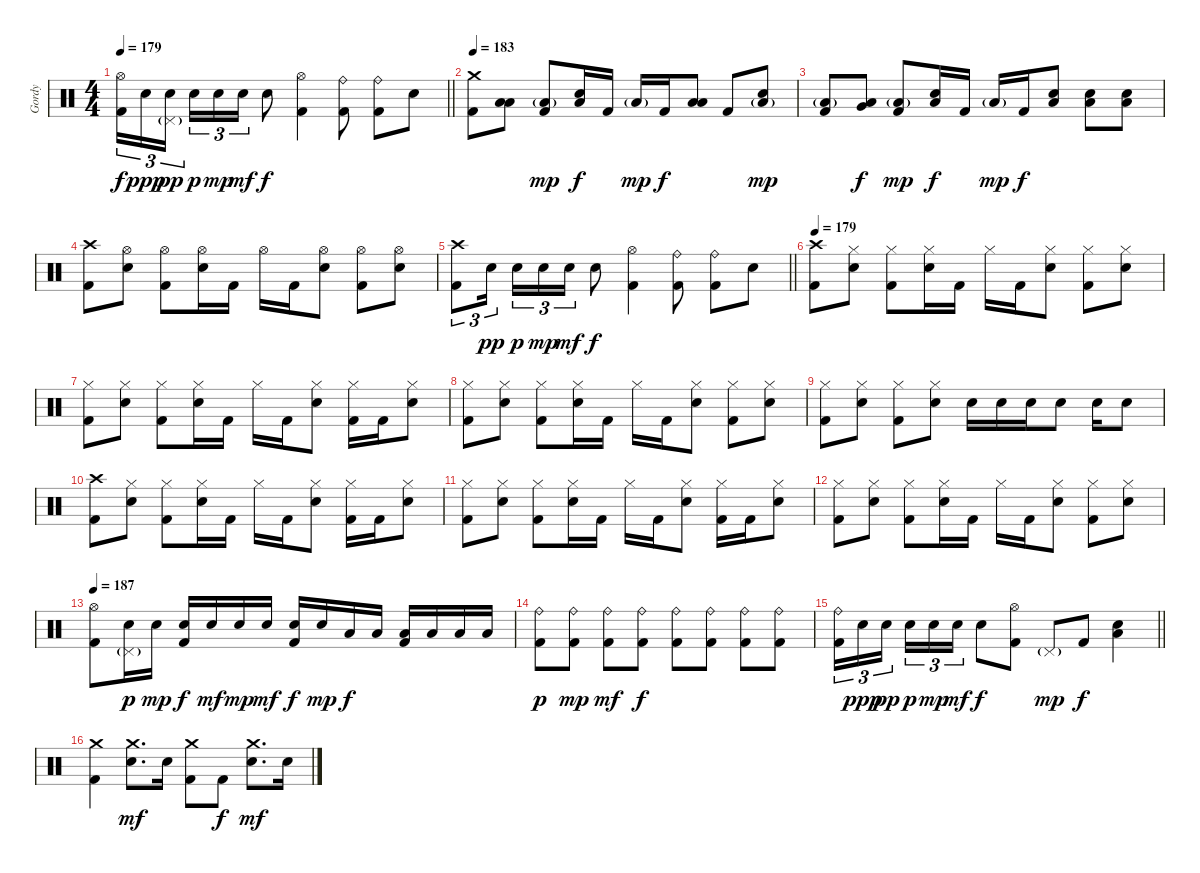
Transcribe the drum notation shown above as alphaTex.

\track ("Gordy" "Gordy") {instrument percussion}
\staff {score}
\articulation defaults
\ts (4 4)
\tempo 179
\clef neutral
\barLineRight lightlight
\ks c
("Hi-Hat (open)" "Kick (hit) 2").16{tu (3 2) dy f} "Electric Snare (hit)".16{tu (3 2) dy ppp} ("Pedal Hi-Hat (hit)"{g} "Electric Snare (hit)").16{tu (3 2) dy pp beam splitsecondary} "Electric Snare (hit)".16{tu (3 2) dy p} "Electric Snare (hit)".16{tu (3 2) dy mp} "Electric Snare (hit)".16{tu (3 2) dy mf} "Electric Snare (hit)".8{dy f} ("Hi-Hat (open)" "Kick (hit) 2").4 ("Ride (bell)" "Kick (hit) 2").8 ("Ride (bell)" "Kick (hit) 2").8 "Electric Snare (hit)".8 |
\section ("" "")
\tempo 183
("Crash medium (hit)" "Kick (hit) 2").8 ("Low Tom (hit)" "Low Floor Tom (hit)").8 ("Low Floor Tom (hit)"{g} "Kick (hit) 2").8{dy mp} ("Electric Snare (hit)" "Low Floor Tom (hit)").16{dy f} "Kick (hit) 2".16 "Low Floor Tom (hit)"{g}.16{dy mp} "Kick (hit) 2".16{dy f} ("Low Tom (hit)" "Low Floor Tom (hit)").8 "Kick (hit) 2".8 ("Electric Snare (hit)" "Low Floor Tom (hit)"{g}).8{dy mp} |
("Low Floor Tom (hit)"{g} "Kick (hit) 2").8 ("Very Low Tom (hit)" "Low Floor Tom (hit)").8{dy f} ("Low Floor Tom (hit)"{g} "Kick (hit) 2").8{dy mp} ("Electric Snare (hit)" "Low Floor Tom (hit)").16{dy f} "Kick (hit) 2".16 "Low Floor Tom (hit)"{g}.16{dy mp} "Kick (hit) 2".16{dy f} ("Electric Snare (hit)" "Low Floor Tom (hit)").8 ("Electric Snare (hit)" "Low Floor Tom (hit)").8 ("Electric Snare (hit)" "Low Floor Tom (hit)").8 |
("Crash high (hit)" "Kick (hit) 2").8 ("Hi-Hat (open)" "Electric Snare (hit)").8 ("Hi-Hat (open)" "Kick (hit) 2").8 ("Hi-Hat (open)" "Electric Snare (hit)").16 "Kick (hit) 2".16 "Hi-Hat (open)".16 "Kick (hit) 2".16 ("Hi-Hat (open)" "Electric Snare (hit)").8 ("Hi-Hat (open)" "Kick (hit) 2").8 ("Hi-Hat (open)" "Electric Snare (hit)").8 |
\barLineRight lightlight
("Crash high (hit)" "Kick (hit) 2").8{tu (3 2)} "Electric Snare (hit)".16{tu (3 2) dy pp beam splitsecondary} "Electric Snare (hit)".16{tu (3 2) dy p} "Electric Snare (hit)".16{tu (3 2) dy mp} "Electric Snare (hit)".16{tu (3 2) dy mf} "Electric Snare (hit)".8{dy f} ("Hi-Hat (open)" "Kick (hit) 2").4 ("Ride (bell)" "Kick (hit) 2").8 ("Ride (bell)" "Kick (hit) 2").8 "Electric Snare (hit)".8 |
\section ("" "")
\tempo 179
("Crash high (hit)" "Kick (hit) 2").8 ("Hi-Hat (closed)" "Electric Snare (hit)").8 ("Hi-Hat (closed)" "Kick (hit) 2").8 ("Hi-Hat (closed)" "Electric Snare (hit)").16 "Kick (hit) 2".16 "Hi-Hat (closed)".16 "Kick (hit) 2".16 ("Hi-Hat (closed)" "Electric Snare (hit)").8 ("Hi-Hat (closed)" "Kick (hit) 2").8 ("Hi-Hat (closed)" "Electric Snare (hit)").8 |
("Hi-Hat (closed)" "Kick (hit) 2").8 ("Hi-Hat (closed)" "Electric Snare (hit)").8 ("Hi-Hat (closed)" "Kick (hit) 2").8 ("Hi-Hat (closed)" "Electric Snare (hit)").16 "Kick (hit) 2".16 "Hi-Hat (closed)".16 "Kick (hit) 2".16 ("Hi-Hat (closed)" "Electric Snare (hit)").8 ("Hi-Hat (closed)" "Kick (hit) 2").16 "Kick (hit) 2".16 ("Hi-Hat (closed)" "Electric Snare (hit)").8 |
("Hi-Hat (closed)" "Kick (hit) 2").8 ("Hi-Hat (closed)" "Electric Snare (hit)").8 ("Hi-Hat (closed)" "Kick (hit) 2").8 ("Hi-Hat (closed)" "Electric Snare (hit)").16 "Kick (hit) 2".16 "Hi-Hat (closed)".16 "Kick (hit) 2".16 ("Hi-Hat (closed)" "Electric Snare (hit)").8 ("Hi-Hat (closed)" "Kick (hit) 2").8 ("Hi-Hat (closed)" "Electric Snare (hit)").8 |
("Hi-Hat (closed)" "Kick (hit) 2").8 ("Hi-Hat (closed)" "Electric Snare (hit)").8 ("Hi-Hat (closed)" "Kick (hit) 2").8 ("Hi-Hat (closed)" "Electric Snare (hit)").8 "Electric Snare (hit)".16 "Electric Snare (hit)".16 "Electric Snare (hit)".16 "Electric Snare (hit)".8 "Electric Snare (hit)".16 "Electric Snare (hit)".8 |
("Crash high (hit)" "Kick (hit) 2").8 ("Hi-Hat (closed)" "Electric Snare (hit)").8 ("Hi-Hat (closed)" "Kick (hit) 2").8 ("Hi-Hat (closed)" "Electric Snare (hit)").16 "Kick (hit) 2".16 "Hi-Hat (closed)".16 "Kick (hit) 2".16 ("Hi-Hat (closed)" "Electric Snare (hit)").8 ("Hi-Hat (closed)" "Kick (hit) 2").16 "Kick (hit) 2".16 ("Hi-Hat (closed)" "Electric Snare (hit)").8 |
("Hi-Hat (closed)" "Kick (hit) 2").8 ("Hi-Hat (closed)" "Electric Snare (hit)").8 ("Hi-Hat (closed)" "Kick (hit) 2").8 ("Hi-Hat (closed)" "Electric Snare (hit)").16 "Kick (hit) 2".16 "Hi-Hat (closed)".16 "Kick (hit) 2".16 ("Hi-Hat (closed)" "Electric Snare (hit)").8 ("Hi-Hat (closed)" "Kick (hit) 2").16 "Kick (hit) 2".16 ("Hi-Hat (closed)" "Electric Snare (hit)").8 |
("Hi-Hat (closed)" "Kick (hit) 2").8 ("Hi-Hat (closed)" "Electric Snare (hit)").8 ("Hi-Hat (closed)" "Kick (hit) 2").8 ("Hi-Hat (closed)" "Electric Snare (hit)").16 "Kick (hit) 2".16 "Hi-Hat (closed)".16 "Kick (hit) 2".16 ("Hi-Hat (closed)" "Electric Snare (hit)").8 ("Hi-Hat (closed)" "Kick (hit) 2").8 ("Hi-Hat (closed)" "Electric Snare (hit)").8 |
\tempo 187
("Hi-Hat (open)" "Kick (hit) 2").8 ("Pedal Hi-Hat (hit)"{g} "Electric Snare (hit)").16{dy p} "Electric Snare (hit)".16{dy mp} ("Electric Snare (hit)" "Kick (hit) 2").16{dy f} "Electric Snare (hit)".16{dy mf} "Electric Snare (hit)".16{dy mp} "Electric Snare (hit)".16{dy mf} ("Electric Snare (hit)" "Kick (hit) 2").16{dy f} "Electric Snare (hit)".16{dy mp} "Low Tom (hit)".16{dy f} "Low Tom (hit)".16 ("Low Tom (hit)" "Kick (hit) 2").16 "Low Tom (hit)".16 "Low Floor Tom (hit)".16 "Low Floor Tom (hit)".16 |
("Ride (bell)" "Kick (hit) 2").8{dy p} ("Ride (bell)" "Kick (hit) 2").8{dy mp} ("Ride (bell)" "Kick (hit) 2").8{dy mf} ("Ride (bell)" "Kick (hit) 2").8{dy f} ("Ride (bell)" "Kick (hit) 2").8 ("Ride (bell)" "Kick (hit) 2").8 ("Ride (bell)" "Kick (hit) 2").8 ("Ride (bell)" "Kick (hit) 2").8 |
\barLineRight lightlight
("Ride (bell)" "Kick (hit) 2").16{tu (3 2)} "Electric Snare (hit)".16{tu (3 2) dy ppp} "Electric Snare (hit)".16{tu (3 2) dy pp beam splitsecondary} "Electric Snare (hit)".16{tu (3 2) dy p} "Electric Snare (hit)".16{tu (3 2) dy mp} "Electric Snare (hit)".16{tu (3 2) dy mf} "Electric Snare (hit)".8{dy f} ("Hi-Hat (open)" "Kick (hit) 2").8 "Pedal Hi-Hat (hit)"{g}.8{dy mp} "Kick (hit) 2".8{dy f} ("Electric Snare (hit)" "Low Floor Tom (hit)").4 |
\section ("" "")
("Crash medium (hit)" "Kick (hit) 2").4 ("Crash medium (hit)" "Electric Snare (hit)").8{d dy mf} "Electric Snare (hit)".16 ("Crash medium (hit)" "Kick (hit) 2").8 "Kick (hit) 2".8{dy f} ("Crash medium (hit)" "Electric Snare (hit)").8{d dy mf} "Electric Snare (hit)".16
